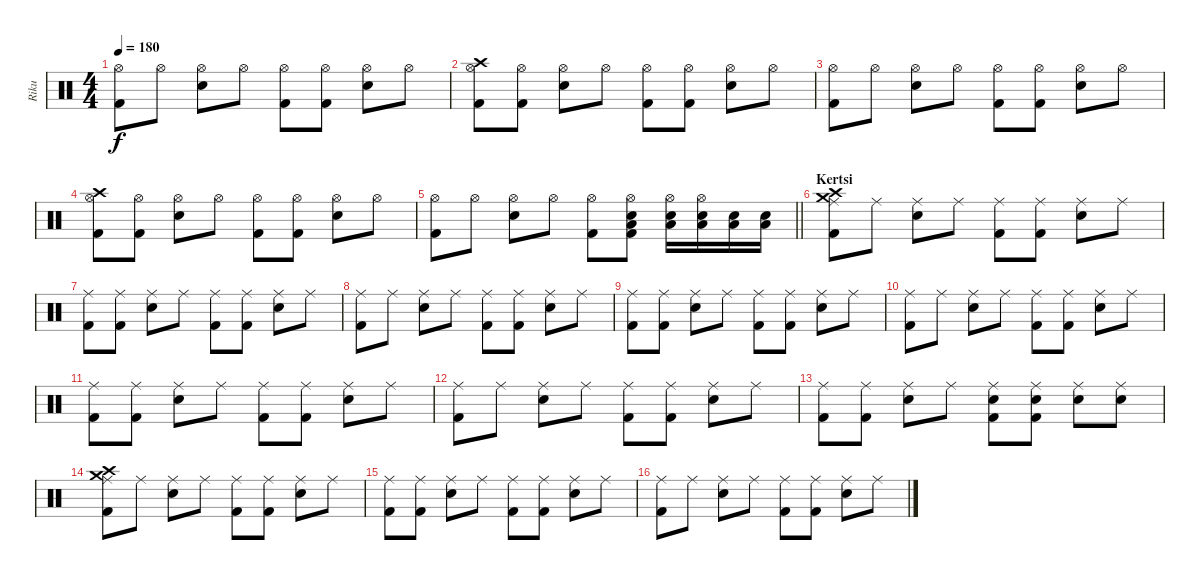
\track ("Riku" "Riku") {instrument percussion}
\staff {score}
\articulation defaults
\ts (4 4)
\tempo 180
\clef neutral
\ks c
("Kick (hit) 2" "Hi-Hat (open)").8{dy f} "Hi-Hat (open)".8 ("Snare (hit) 2" "Hi-Hat (open)").8 "Hi-Hat (open)".8 ("Kick (hit) 2" "Hi-Hat (open)").8 ("Kick (hit) 2" "Hi-Hat (open)").8 ("Snare (hit) 2" "Hi-Hat (open)").8 "Hi-Hat (open)".8 |
("Kick (hit) 2" "Hi-Hat (open)" "Crash high (hit)").8 ("Kick (hit) 2" "Hi-Hat (open)").8 ("Snare (hit) 2" "Hi-Hat (open)").8 "Hi-Hat (open)".8 ("Kick (hit) 2" "Hi-Hat (open)").8 ("Kick (hit) 2" "Hi-Hat (open)").8 ("Snare (hit) 2" "Hi-Hat (open)").8 "Hi-Hat (open)".8 |
("Kick (hit) 2" "Hi-Hat (open)").8 "Hi-Hat (open)".8 ("Snare (hit) 2" "Hi-Hat (open)").8 "Hi-Hat (open)".8 ("Kick (hit) 2" "Hi-Hat (open)").8 ("Kick (hit) 2" "Hi-Hat (open)").8 ("Snare (hit) 2" "Hi-Hat (open)").8 "Hi-Hat (open)".8 |
("Kick (hit) 2" "Hi-Hat (open)" "Crash high (hit)").8 ("Kick (hit) 2" "Hi-Hat (open)").8 ("Snare (hit) 2" "Hi-Hat (open)").8 "Hi-Hat (open)".8 ("Kick (hit) 2" "Hi-Hat (open)").8 ("Kick (hit) 2" "Hi-Hat (open)").8 ("Snare (hit) 2" "Hi-Hat (open)").8 "Hi-Hat (open)".8 |
\barLineRight lightlight
("Kick (hit) 2" "Hi-Hat (open)").8 "Hi-Hat (open)".8 ("Snare (hit) 2" "Hi-Hat (open)").8 "Hi-Hat (open)".8 ("Kick (hit) 2" "Hi-Hat (open)").8 ("Snare (hit) 2" "Kick (hit) 2" "Hi-Hat (open)" "Low Floor Tom (hit)").8 ("Snare (hit) 2" "Hi-Hat (open)" "Low Floor Tom (hit)").16 ("Snare (hit) 2" "Hi-Hat (open)" "Low Floor Tom (hit)").16 ("Snare (hit) 2" "Low Floor Tom (hit)").16 ("Snare (hit) 2" "Low Floor Tom (hit)").16 |
\section ("" "Kertsi")
("Kick (hit) 2" "Ride (middle)" "Crash medium (hit)" "Crash high (hit)").8 "Ride (middle)".8 ("Snare (hit) 2" "Ride (middle)").8 "Ride (middle)".8 ("Kick (hit) 2" "Ride (middle)").8 ("Kick (hit) 2" "Ride (middle)").8 ("Snare (hit) 2" "Ride (middle)").8 "Ride (middle)".8 |
("Kick (hit) 2" "Ride (middle)").8 ("Kick (hit) 2" "Ride (middle)").8 ("Snare (hit) 2" "Ride (middle)").8 "Ride (middle)".8 ("Kick (hit) 2" "Ride (middle)").8 ("Kick (hit) 2" "Ride (middle)").8 ("Snare (hit) 2" "Ride (middle)").8 "Ride (middle)".8 |
("Kick (hit) 2" "Ride (middle)").8 "Ride (middle)".8 ("Snare (hit) 2" "Ride (middle)").8 "Ride (middle)".8 ("Kick (hit) 2" "Ride (middle)").8 ("Kick (hit) 2" "Ride (middle)").8 ("Snare (hit) 2" "Ride (middle)").8 "Ride (middle)".8 |
("Kick (hit) 2" "Ride (middle)").8 ("Kick (hit) 2" "Ride (middle)").8 ("Snare (hit) 2" "Ride (middle)").8 "Ride (middle)".8 ("Kick (hit) 2" "Ride (middle)").8 ("Kick (hit) 2" "Ride (middle)").8 ("Snare (hit) 2" "Ride (middle)").8 "Ride (middle)".8 |
("Kick (hit) 2" "Ride (middle)").8 "Ride (middle)".8 ("Snare (hit) 2" "Ride (middle)").8 "Ride (middle)".8 ("Kick (hit) 2" "Ride (middle)").8 ("Kick (hit) 2" "Ride (middle)").8 ("Snare (hit) 2" "Ride (middle)").8 "Ride (middle)".8 |
("Kick (hit) 2" "Ride (middle)").8 ("Kick (hit) 2" "Ride (middle)").8 ("Snare (hit) 2" "Ride (middle)").8 "Ride (middle)".8 ("Kick (hit) 2" "Ride (middle)").8 ("Kick (hit) 2" "Ride (middle)").8 ("Snare (hit) 2" "Ride (middle)").8 "Ride (middle)".8 |
("Kick (hit) 2" "Ride (middle)").8 "Ride (middle)".8 ("Snare (hit) 2" "Ride (middle)").8 "Ride (middle)".8 ("Kick (hit) 2" "Ride (middle)").8 ("Kick (hit) 2" "Ride (middle)").8 ("Snare (hit) 2" "Ride (middle)").8 "Ride (middle)".8 |
("Kick (hit) 2" "Ride (middle)").8 ("Kick (hit) 2" "Ride (middle)").8 ("Snare (hit) 2" "Ride (middle)").8 "Ride (middle)".8 ("Snare (hit) 2" "Kick (hit) 2" "Ride (middle)").8 ("Snare (hit) 2" "Kick (hit) 2" "Ride (middle)").8 ("Snare (hit) 2" "Ride (middle)").8 ("Snare (hit) 2" "Ride (middle)").8 |
("Kick (hit) 2" "Ride (middle)" "Crash medium (hit)" "Crash high (hit)").8 "Ride (middle)".8 ("Snare (hit) 2" "Ride (middle)").8 "Ride (middle)".8 ("Kick (hit) 2" "Ride (middle)").8 ("Kick (hit) 2" "Ride (middle)").8 ("Snare (hit) 2" "Ride (middle)").8 "Ride (middle)".8 |
("Kick (hit) 2" "Ride (middle)").8 ("Kick (hit) 2" "Ride (middle)").8 ("Snare (hit) 2" "Ride (middle)").8 "Ride (middle)".8 ("Kick (hit) 2" "Ride (middle)").8 ("Kick (hit) 2" "Ride (middle)").8 ("Snare (hit) 2" "Ride (middle)").8 "Ride (middle)".8 |
("Kick (hit) 2" "Ride (middle)").8 "Ride (middle)".8 ("Snare (hit) 2" "Ride (middle)").8 "Ride (middle)".8 ("Kick (hit) 2" "Ride (middle)").8 ("Kick (hit) 2" "Ride (middle)").8 ("Snare (hit) 2" "Ride (middle)").8 "Ride (middle)".8
